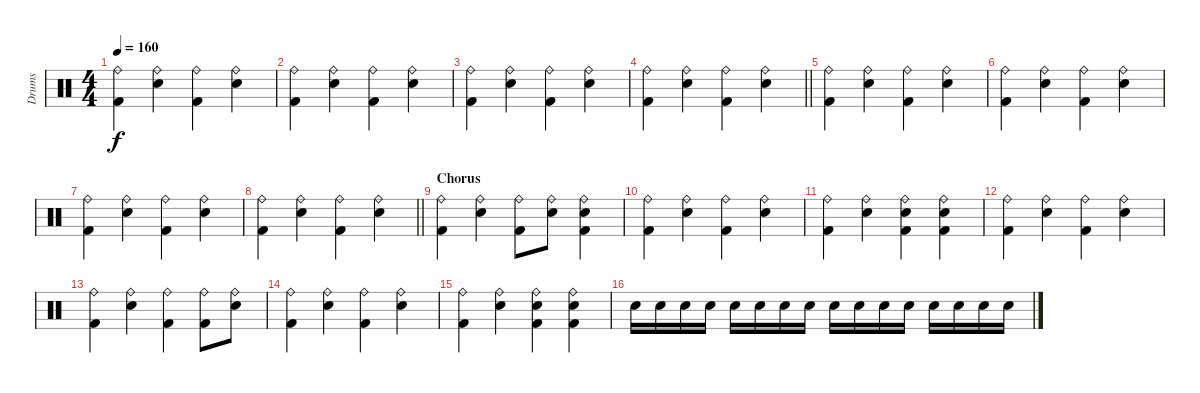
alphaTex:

\track ("Drums" "Drums") {instrument percussion}
\staff {score}
\articulation defaults
\ts (4 4)
\tempo 160
\clef neutral
\ks c
("Ride (bell)" "Kick (hit) 2").4{dy f} ("Ride (bell)" "Snare (hit) 2").4 ("Ride (bell)" "Kick (hit) 2").4 ("Ride (bell)" "Snare (hit) 2").4 |
("Ride (bell)" "Kick (hit) 2").4 ("Ride (bell)" "Snare (hit) 2").4 ("Ride (bell)" "Kick (hit) 2").4 ("Ride (bell)" "Snare (hit) 2").4 |
("Ride (bell)" "Kick (hit) 2").4 ("Ride (bell)" "Snare (hit) 2").4 ("Ride (bell)" "Kick (hit) 2").4 ("Ride (bell)" "Snare (hit) 2").4 |
\barLineRight lightlight
("Ride (bell)" "Kick (hit) 2").4 ("Ride (bell)" "Snare (hit) 2").4 ("Ride (bell)" "Kick (hit) 2").4 ("Ride (bell)" "Snare (hit) 2").4 |
("Ride (bell)" "Kick (hit) 2").4 ("Ride (bell)" "Snare (hit) 2").4 ("Ride (bell)" "Kick (hit) 2").4 ("Ride (bell)" "Snare (hit) 2").4 |
("Ride (bell)" "Kick (hit) 2").4 ("Ride (bell)" "Snare (hit) 2").4 ("Ride (bell)" "Kick (hit) 2").4 ("Ride (bell)" "Snare (hit) 2").4 |
("Ride (bell)" "Kick (hit) 2").4 ("Ride (bell)" "Snare (hit) 2").4 ("Ride (bell)" "Kick (hit) 2").4 ("Ride (bell)" "Snare (hit) 2").4 |
\barLineRight lightlight
("Ride (bell)" "Kick (hit) 2").4 ("Ride (bell)" "Snare (hit) 2").4 ("Ride (bell)" "Kick (hit) 2").4 ("Ride (bell)" "Snare (hit) 2").4 |
\section ("" "Chorus")
("Ride (bell)" "Kick (hit) 2").4 ("Ride (bell)" "Snare (hit) 2").4 ("Ride (bell)" "Kick (hit) 2").8 ("Ride (bell)" "Snare (hit) 2").8 ("Ride (bell)" "Snare (hit) 2" "Kick (hit) 2").4 |
("Ride (bell)" "Kick (hit) 2").4 ("Ride (bell)" "Snare (hit) 2").4 ("Ride (bell)" "Kick (hit) 2").4 ("Ride (bell)" "Snare (hit) 2").4 |
("Ride (bell)" "Kick (hit) 2").4 ("Ride (bell)" "Snare (hit) 2").4 ("Ride (bell)" "Snare (hit) 2" "Kick (hit) 2").4 ("Ride (bell)" "Snare (hit) 2" "Kick (hit) 2").4 |
("Ride (bell)" "Kick (hit) 2").4 ("Ride (bell)" "Snare (hit) 2").4 ("Ride (bell)" "Kick (hit) 2").4 ("Ride (bell)" "Snare (hit) 2").4 |
("Ride (bell)" "Kick (hit) 2").4 ("Ride (bell)" "Snare (hit) 2").4 ("Ride (bell)" "Kick (hit) 2").4 ("Ride (bell)" "Kick (hit) 2").8 ("Ride (bell)" "Snare (hit) 2").8 |
("Ride (bell)" "Kick (hit) 2").4 ("Ride (bell)" "Snare (hit) 2").4 ("Ride (bell)" "Kick (hit) 2").4 ("Ride (bell)" "Snare (hit) 2").4 |
("Ride (bell)" "Kick (hit) 2").4 ("Ride (bell)" "Snare (hit) 2").4 ("Ride (bell)" "Snare (hit) 2" "Kick (hit) 2").4 ("Ride (bell)" "Snare (hit) 2" "Kick (hit) 2").4 |
"Snare (hit) 2".16 "Snare (hit) 2".16 "Snare (hit) 2".16 "Snare (hit) 2".16 "Snare (hit) 2".16 "Snare (hit) 2".16 "Snare (hit) 2".16 "Snare (hit) 2".16 "Snare (hit) 2".16 "Snare (hit) 2".16 "Snare (hit) 2".16 "Snare (hit) 2".16 "Snare (hit) 2".16 "Snare (hit) 2".16 "Snare (hit) 2".16 "Snare (hit) 2".16
